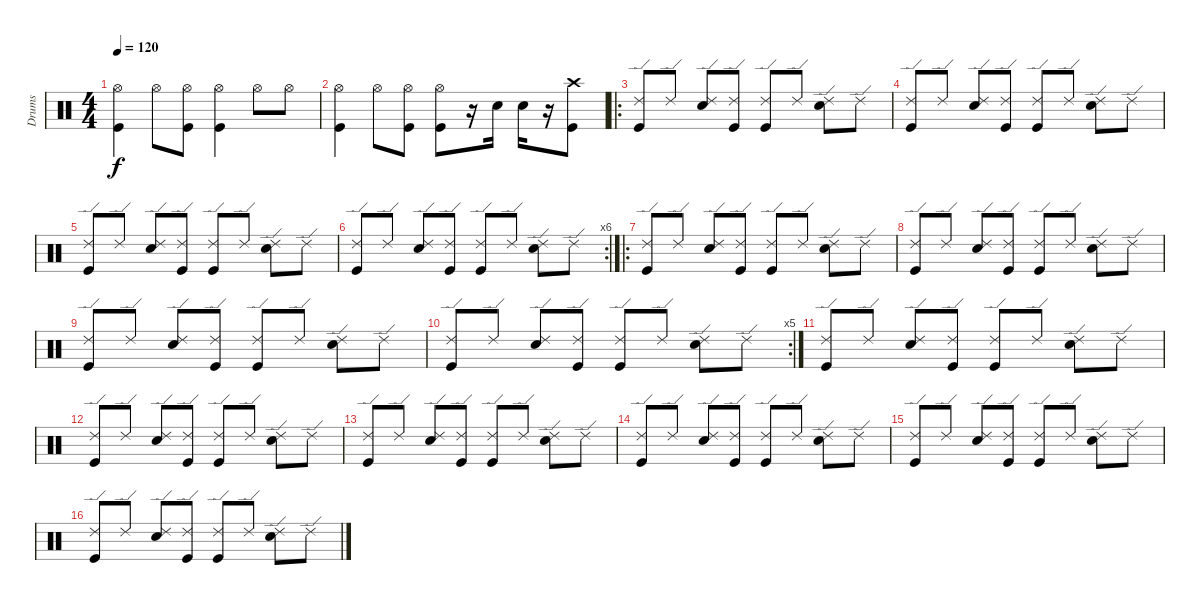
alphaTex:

\track ("Drums" "Drums") {instrument percussion}
\staff {score}
\articulation defaults
\ts (4 4)
\tempo 120
\clef neutral
\ks c
("Hi-Hat (open)" "Kick (hit)").4{dy f} "Hi-Hat (open)".8 ("Hi-Hat (open)" "Kick (hit)").8 ("Hi-Hat (open)" "Kick (hit)").4 "Hi-Hat (open)".8 "Hi-Hat (open)".8 |
("Hi-Hat (open)" "Kick (hit)").4 "Hi-Hat (open)".8 ("Hi-Hat (open)" "Kick (hit)").8 ("Hi-Hat (open)" "Kick (hit)").8 r.16 "Electric Snare (hit)".16 "Electric Snare (hit)".16 r.16 ("Crash high (hit)" "Kick (hit)").8 |
\ro
("Ride (edge) 2" "Kick (hit)").8 "Ride (edge) 2".8 ("Ride (edge) 2" "Electric Snare (hit)").8 ("Ride (edge) 2" "Kick (hit)").8 ("Ride (edge) 2" "Kick (hit)").8 "Ride (edge) 2".8 ("Ride (edge) 2" "Electric Snare (hit)").8 "Ride (edge) 2".8 |
("Ride (edge) 2" "Kick (hit)").8 "Ride (edge) 2".8 ("Ride (edge) 2" "Electric Snare (hit)").8 ("Ride (edge) 2" "Kick (hit)").8 ("Ride (edge) 2" "Kick (hit)").8 "Ride (edge) 2".8 ("Ride (edge) 2" "Electric Snare (hit)").8 "Ride (edge) 2".8 |
("Ride (edge) 2" "Kick (hit)").8 "Ride (edge) 2".8 ("Ride (edge) 2" "Electric Snare (hit)").8 ("Ride (edge) 2" "Kick (hit)").8 ("Ride (edge) 2" "Kick (hit)").8 "Ride (edge) 2".8 ("Ride (edge) 2" "Electric Snare (hit)").8 "Ride (edge) 2".8 |
\rc 6
("Ride (edge) 2" "Kick (hit)").8 "Ride (edge) 2".8 ("Ride (edge) 2" "Electric Snare (hit)").8 ("Ride (edge) 2" "Kick (hit)").8 ("Ride (edge) 2" "Kick (hit)").8 "Ride (edge) 2".8 ("Ride (edge) 2" "Electric Snare (hit)").8 "Ride (edge) 2".8 |
\ro
("Ride (edge) 2" "Kick (hit)").8 "Ride (edge) 2".8 ("Ride (edge) 2" "Electric Snare (hit)").8 ("Ride (edge) 2" "Kick (hit)").8 ("Ride (edge) 2" "Kick (hit)").8 "Ride (edge) 2".8 ("Ride (edge) 2" "Electric Snare (hit)").8 "Ride (edge) 2".8 |
("Ride (edge) 2" "Kick (hit)").8 "Ride (edge) 2".8 ("Ride (edge) 2" "Electric Snare (hit)").8 ("Ride (edge) 2" "Kick (hit)").8 ("Ride (edge) 2" "Kick (hit)").8 "Ride (edge) 2".8 ("Ride (edge) 2" "Electric Snare (hit)").8 "Ride (edge) 2".8 |
("Ride (edge) 2" "Kick (hit)").8 "Ride (edge) 2".8 ("Ride (edge) 2" "Electric Snare (hit)").8 ("Ride (edge) 2" "Kick (hit)").8 ("Ride (edge) 2" "Kick (hit)").8 "Ride (edge) 2".8 ("Ride (edge) 2" "Electric Snare (hit)").8 "Ride (edge) 2".8 |
\rc 5
("Ride (edge) 2" "Kick (hit)").8 "Ride (edge) 2".8 ("Ride (edge) 2" "Electric Snare (hit)").8 ("Ride (edge) 2" "Kick (hit)").8 ("Ride (edge) 2" "Kick (hit)").8 "Ride (edge) 2".8 ("Ride (edge) 2" "Electric Snare (hit)").8 "Ride (edge) 2".8 |
("Ride (edge) 2" "Kick (hit)").8 "Ride (edge) 2".8 ("Ride (edge) 2" "Electric Snare (hit)").8 ("Ride (edge) 2" "Kick (hit)").8 ("Ride (edge) 2" "Kick (hit)").8 "Ride (edge) 2".8 ("Ride (edge) 2" "Electric Snare (hit)").8 "Ride (edge) 2".8 |
("Ride (edge) 2" "Kick (hit)").8 "Ride (edge) 2".8 ("Ride (edge) 2" "Electric Snare (hit)").8 ("Ride (edge) 2" "Kick (hit)").8 ("Ride (edge) 2" "Kick (hit)").8 "Ride (edge) 2".8 ("Ride (edge) 2" "Electric Snare (hit)").8 "Ride (edge) 2".8 |
("Ride (edge) 2" "Kick (hit)").8 "Ride (edge) 2".8 ("Ride (edge) 2" "Electric Snare (hit)").8 ("Ride (edge) 2" "Kick (hit)").8 ("Ride (edge) 2" "Kick (hit)").8 "Ride (edge) 2".8 ("Ride (edge) 2" "Electric Snare (hit)").8 "Ride (edge) 2".8 |
("Ride (edge) 2" "Kick (hit)").8 "Ride (edge) 2".8 ("Ride (edge) 2" "Electric Snare (hit)").8 ("Ride (edge) 2" "Kick (hit)").8 ("Ride (edge) 2" "Kick (hit)").8 "Ride (edge) 2".8 ("Ride (edge) 2" "Electric Snare (hit)").8 "Ride (edge) 2".8 |
("Ride (edge) 2" "Kick (hit)").8 "Ride (edge) 2".8 ("Ride (edge) 2" "Electric Snare (hit)").8 ("Ride (edge) 2" "Kick (hit)").8 ("Ride (edge) 2" "Kick (hit)").8 "Ride (edge) 2".8 ("Ride (edge) 2" "Electric Snare (hit)").8 "Ride (edge) 2".8 |
("Ride (edge) 2" "Kick (hit)").8 "Ride (edge) 2".8 ("Ride (edge) 2" "Electric Snare (hit)").8 ("Ride (edge) 2" "Kick (hit)").8 ("Ride (edge) 2" "Kick (hit)").8 "Ride (edge) 2".8 ("Ride (edge) 2" "Electric Snare (hit)").8 "Ride (edge) 2".8
